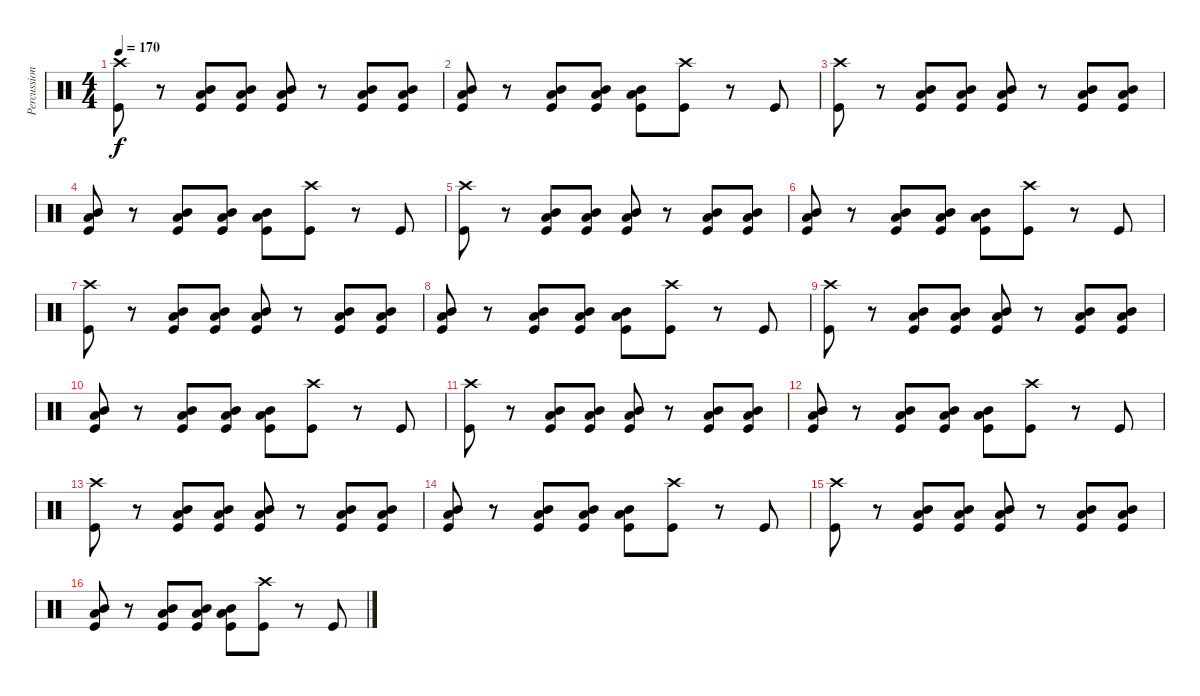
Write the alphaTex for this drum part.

\track ("Percussion" "Percussion") {instrument percussion}
\staff {score}
\articulation defaults
\ts (4 4)
\tempo 170
\clef neutral
\ks c
("Crash high (hit)" "Kick (hit)").8{dy f} r.8 ("Low Tom (hit)" "Mid Tom (hit)" "Kick (hit)").8 ("Low Tom (hit)" "Mid Tom (hit)" "Kick (hit)").8 ("Low Tom (hit)" "Mid Tom (hit)" "Kick (hit)").8 r.8 ("Low Tom (hit)" "Mid Tom (hit)" "Kick (hit)").8 ("Low Tom (hit)" "Mid Tom (hit)" "Kick (hit)").8 |
("Low Tom (hit)" "Mid Tom (hit)" "Kick (hit)").8 r.8 ("Low Tom (hit)" "Mid Tom (hit)" "Kick (hit)").8 ("Low Tom (hit)" "Mid Tom (hit)" "Kick (hit)").8 ("Low Tom (hit)" "Mid Tom (hit)" "Kick (hit)").8 ("Crash high (hit)" "Kick (hit)").8 r.8 "Kick (hit)".8 |
("Crash high (hit)" "Kick (hit)").8 r.8 ("Low Tom (hit)" "Mid Tom (hit)" "Kick (hit)").8 ("Low Tom (hit)" "Mid Tom (hit)" "Kick (hit)").8 ("Low Tom (hit)" "Mid Tom (hit)" "Kick (hit)").8 r.8 ("Low Tom (hit)" "Mid Tom (hit)" "Kick (hit)").8 ("Low Tom (hit)" "Mid Tom (hit)" "Kick (hit)").8 |
("Low Tom (hit)" "Mid Tom (hit)" "Kick (hit)").8 r.8 ("Low Tom (hit)" "Mid Tom (hit)" "Kick (hit)").8 ("Low Tom (hit)" "Mid Tom (hit)" "Kick (hit)").8 ("Low Tom (hit)" "Mid Tom (hit)" "Kick (hit)").8 ("Crash high (hit)" "Kick (hit)").8 r.8 "Kick (hit)".8 |
("Crash high (hit)" "Kick (hit)").8 r.8 ("Low Tom (hit)" "Mid Tom (hit)" "Kick (hit)").8 ("Low Tom (hit)" "Mid Tom (hit)" "Kick (hit)").8 ("Low Tom (hit)" "Mid Tom (hit)" "Kick (hit)").8 r.8 ("Low Tom (hit)" "Mid Tom (hit)" "Kick (hit)").8 ("Low Tom (hit)" "Mid Tom (hit)" "Kick (hit)").8 |
("Low Tom (hit)" "Mid Tom (hit)" "Kick (hit)").8 r.8 ("Low Tom (hit)" "Mid Tom (hit)" "Kick (hit)").8 ("Low Tom (hit)" "Mid Tom (hit)" "Kick (hit)").8 ("Low Tom (hit)" "Mid Tom (hit)" "Kick (hit)").8 ("Crash high (hit)" "Kick (hit)").8 r.8 "Kick (hit)".8 |
("Crash high (hit)" "Kick (hit)").8 r.8 ("Low Tom (hit)" "Mid Tom (hit)" "Kick (hit)").8 ("Low Tom (hit)" "Mid Tom (hit)" "Kick (hit)").8 ("Low Tom (hit)" "Mid Tom (hit)" "Kick (hit)").8 r.8 ("Low Tom (hit)" "Mid Tom (hit)" "Kick (hit)").8 ("Low Tom (hit)" "Mid Tom (hit)" "Kick (hit)").8 |
("Low Tom (hit)" "Mid Tom (hit)" "Kick (hit)").8 r.8 ("Low Tom (hit)" "Mid Tom (hit)" "Kick (hit)").8 ("Low Tom (hit)" "Mid Tom (hit)" "Kick (hit)").8 ("Low Tom (hit)" "Mid Tom (hit)" "Kick (hit)").8 ("Crash high (hit)" "Kick (hit)").8 r.8 "Kick (hit)".8 |
("Crash high (hit)" "Kick (hit)").8 r.8 ("Low Tom (hit)" "Mid Tom (hit)" "Kick (hit)").8 ("Low Tom (hit)" "Mid Tom (hit)" "Kick (hit)").8 ("Low Tom (hit)" "Mid Tom (hit)" "Kick (hit)").8 r.8 ("Low Tom (hit)" "Mid Tom (hit)" "Kick (hit)").8 ("Low Tom (hit)" "Mid Tom (hit)" "Kick (hit)").8 |
("Low Tom (hit)" "Mid Tom (hit)" "Kick (hit)").8 r.8 ("Low Tom (hit)" "Mid Tom (hit)" "Kick (hit)").8 ("Low Tom (hit)" "Mid Tom (hit)" "Kick (hit)").8 ("Low Tom (hit)" "Mid Tom (hit)" "Kick (hit)").8 ("Crash high (hit)" "Kick (hit)").8 r.8 "Kick (hit)".8 |
("Crash high (hit)" "Kick (hit)").8 r.8 ("Low Tom (hit)" "Mid Tom (hit)" "Kick (hit)").8 ("Low Tom (hit)" "Mid Tom (hit)" "Kick (hit)").8 ("Low Tom (hit)" "Mid Tom (hit)" "Kick (hit)").8 r.8 ("Low Tom (hit)" "Mid Tom (hit)" "Kick (hit)").8 ("Low Tom (hit)" "Mid Tom (hit)" "Kick (hit)").8 |
("Low Tom (hit)" "Mid Tom (hit)" "Kick (hit)").8 r.8 ("Low Tom (hit)" "Mid Tom (hit)" "Kick (hit)").8 ("Low Tom (hit)" "Mid Tom (hit)" "Kick (hit)").8 ("Low Tom (hit)" "Mid Tom (hit)" "Kick (hit)").8 ("Crash high (hit)" "Kick (hit)").8 r.8 "Kick (hit)".8 |
("Crash high (hit)" "Kick (hit)").8 r.8 ("Low Tom (hit)" "Mid Tom (hit)" "Kick (hit)").8 ("Low Tom (hit)" "Mid Tom (hit)" "Kick (hit)").8 ("Low Tom (hit)" "Mid Tom (hit)" "Kick (hit)").8 r.8 ("Low Tom (hit)" "Mid Tom (hit)" "Kick (hit)").8 ("Low Tom (hit)" "Mid Tom (hit)" "Kick (hit)").8 |
("Low Tom (hit)" "Mid Tom (hit)" "Kick (hit)").8 r.8 ("Low Tom (hit)" "Mid Tom (hit)" "Kick (hit)").8 ("Low Tom (hit)" "Mid Tom (hit)" "Kick (hit)").8 ("Low Tom (hit)" "Mid Tom (hit)" "Kick (hit)").8 ("Crash high (hit)" "Kick (hit)").8 r.8 "Kick (hit)".8 |
("Crash high (hit)" "Kick (hit)").8 r.8 ("Low Tom (hit)" "Mid Tom (hit)" "Kick (hit)").8 ("Low Tom (hit)" "Mid Tom (hit)" "Kick (hit)").8 ("Low Tom (hit)" "Mid Tom (hit)" "Kick (hit)").8 r.8 ("Low Tom (hit)" "Mid Tom (hit)" "Kick (hit)").8 ("Low Tom (hit)" "Mid Tom (hit)" "Kick (hit)").8 |
("Low Tom (hit)" "Mid Tom (hit)" "Kick (hit)").8 r.8 ("Low Tom (hit)" "Mid Tom (hit)" "Kick (hit)").8 ("Low Tom (hit)" "Mid Tom (hit)" "Kick (hit)").8 ("Low Tom (hit)" "Mid Tom (hit)" "Kick (hit)").8 ("Crash high (hit)" "Kick (hit)").8 r.8 "Kick (hit)".8
